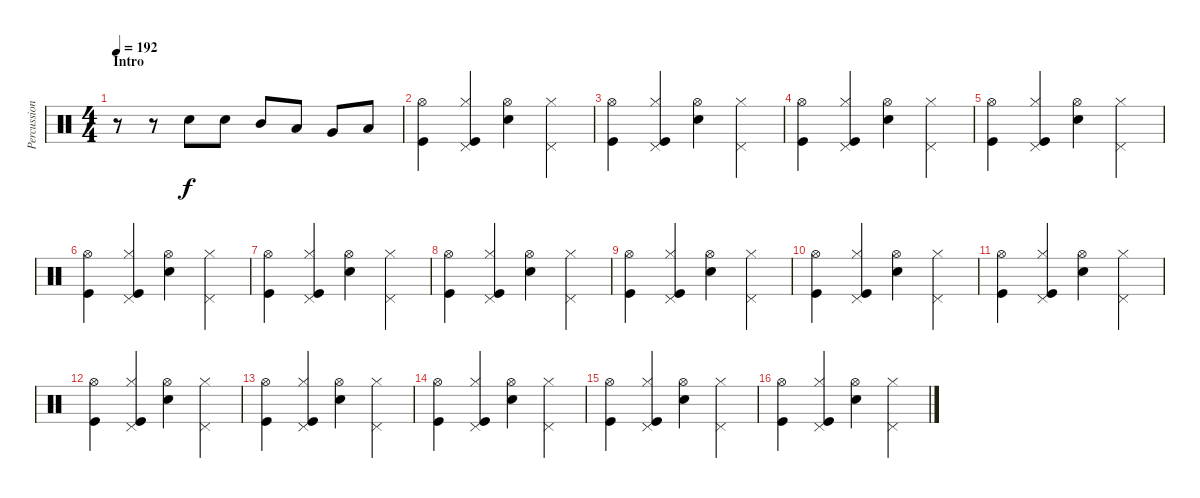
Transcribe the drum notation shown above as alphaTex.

\track ("Percussion" "Percussion") {instrument percussion}
\staff {score}
\articulation defaults
\ts (4 4)
\section ("" "Intro")
\tempo 192
\clef neutral
\ks c
r.8{dy f} r.8 "Electric Snare (hit)".8 "Electric Snare (hit)".8 "Mid Tom (hit)".8 "Low Tom (hit)".8 "Very Low Tom (hit)".8 "Low Floor Tom (hit)".8 |
("Hi-Hat (open)" "Kick (hit)").4 ("Hi-Hat (closed)" "Pedal Hi-Hat (hit)" "Kick (hit)").4 ("Hi-Hat (open)" "Electric Snare (hit)").4 ("Hi-Hat (closed)" "Pedal Hi-Hat (hit)").4 |
("Hi-Hat (open)" "Kick (hit)").4 ("Hi-Hat (closed)" "Pedal Hi-Hat (hit)" "Kick (hit)").4 ("Hi-Hat (open)" "Electric Snare (hit)").4 ("Hi-Hat (closed)" "Pedal Hi-Hat (hit)").4 |
("Hi-Hat (open)" "Kick (hit)").4 ("Hi-Hat (closed)" "Pedal Hi-Hat (hit)" "Kick (hit)").4 ("Hi-Hat (open)" "Electric Snare (hit)").4 ("Hi-Hat (closed)" "Pedal Hi-Hat (hit)").4 |
("Hi-Hat (open)" "Kick (hit)").4 ("Hi-Hat (closed)" "Pedal Hi-Hat (hit)" "Kick (hit)").4 ("Hi-Hat (open)" "Electric Snare (hit)").4 ("Hi-Hat (closed)" "Pedal Hi-Hat (hit)").4 |
("Hi-Hat (open)" "Kick (hit)").4 ("Hi-Hat (closed)" "Pedal Hi-Hat (hit)" "Kick (hit)").4 ("Hi-Hat (open)" "Electric Snare (hit)").4 ("Hi-Hat (closed)" "Pedal Hi-Hat (hit)").4 |
("Hi-Hat (open)" "Kick (hit)").4 ("Hi-Hat (closed)" "Pedal Hi-Hat (hit)" "Kick (hit)").4 ("Hi-Hat (open)" "Electric Snare (hit)").4 ("Hi-Hat (closed)" "Pedal Hi-Hat (hit)").4 |
("Hi-Hat (open)" "Kick (hit)").4 ("Hi-Hat (closed)" "Pedal Hi-Hat (hit)" "Kick (hit)").4 ("Hi-Hat (open)" "Electric Snare (hit)").4 ("Hi-Hat (closed)" "Pedal Hi-Hat (hit)").4 |
("Hi-Hat (open)" "Kick (hit)").4 ("Hi-Hat (closed)" "Pedal Hi-Hat (hit)" "Kick (hit)").4 ("Hi-Hat (open)" "Electric Snare (hit)").4 ("Hi-Hat (closed)" "Pedal Hi-Hat (hit)").4 |
("Hi-Hat (open)" "Kick (hit)").4 ("Hi-Hat (closed)" "Pedal Hi-Hat (hit)" "Kick (hit)").4 ("Hi-Hat (open)" "Electric Snare (hit)").4 ("Hi-Hat (closed)" "Pedal Hi-Hat (hit)").4 |
("Hi-Hat (open)" "Kick (hit)").4 ("Hi-Hat (closed)" "Pedal Hi-Hat (hit)" "Kick (hit)").4 ("Hi-Hat (open)" "Electric Snare (hit)").4 ("Hi-Hat (closed)" "Pedal Hi-Hat (hit)").4 |
("Hi-Hat (open)" "Kick (hit)").4 ("Hi-Hat (closed)" "Pedal Hi-Hat (hit)" "Kick (hit)").4 ("Hi-Hat (open)" "Electric Snare (hit)").4 ("Hi-Hat (closed)" "Pedal Hi-Hat (hit)").4 |
("Hi-Hat (open)" "Kick (hit)").4 ("Hi-Hat (closed)" "Pedal Hi-Hat (hit)" "Kick (hit)").4 ("Hi-Hat (open)" "Electric Snare (hit)").4 ("Hi-Hat (closed)" "Pedal Hi-Hat (hit)").4 |
("Hi-Hat (open)" "Kick (hit)").4 ("Hi-Hat (closed)" "Pedal Hi-Hat (hit)" "Kick (hit)").4 ("Hi-Hat (open)" "Electric Snare (hit)").4 ("Hi-Hat (closed)" "Pedal Hi-Hat (hit)").4 |
("Hi-Hat (open)" "Kick (hit)").4 ("Hi-Hat (closed)" "Pedal Hi-Hat (hit)" "Kick (hit)").4 ("Hi-Hat (open)" "Electric Snare (hit)").4 ("Hi-Hat (closed)" "Pedal Hi-Hat (hit)").4 |
("Hi-Hat (open)" "Kick (hit)").4 ("Hi-Hat (closed)" "Pedal Hi-Hat (hit)" "Kick (hit)").4 ("Hi-Hat (open)" "Electric Snare (hit)").4 ("Hi-Hat (closed)" "Pedal Hi-Hat (hit)").4
